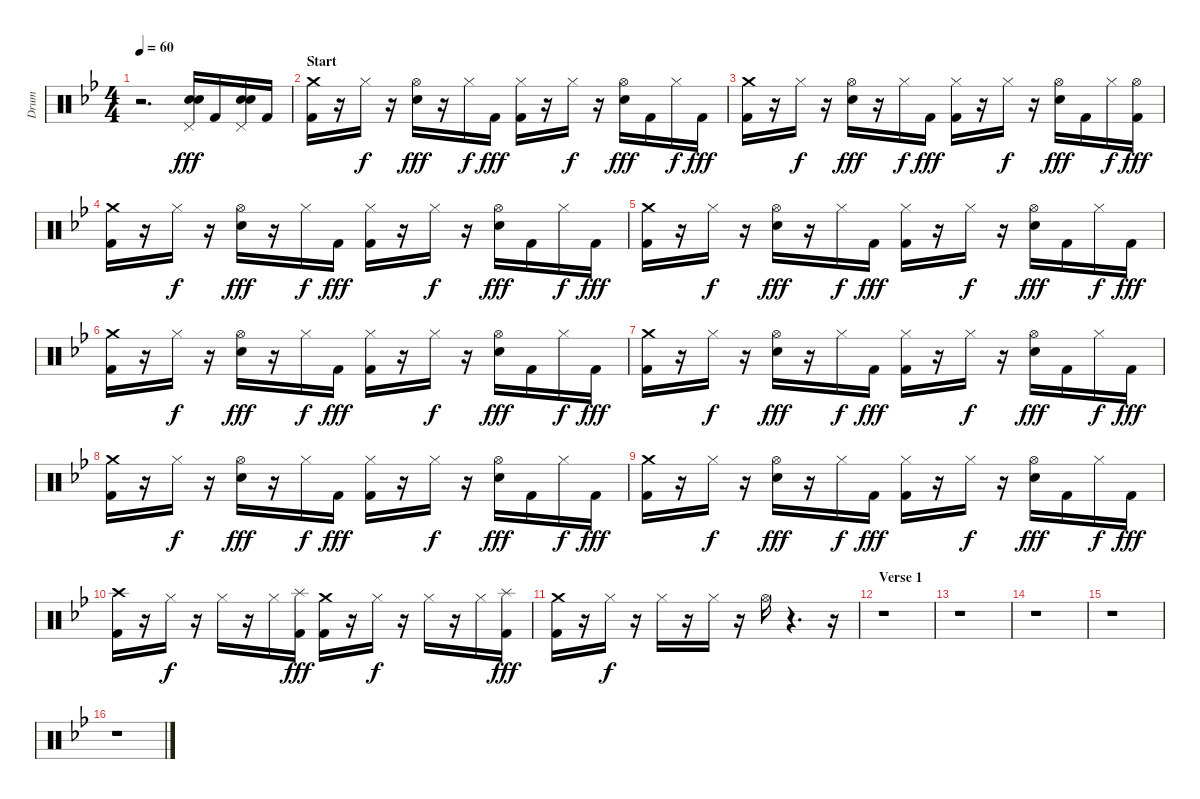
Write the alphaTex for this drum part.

\track ("Drum" "Drum") {instrument percussion}
\staff {score}
\articulation defaults
\ts (4 4)
\tempo 60
\clef neutral
\ks gminor
r.2{d dy fff} ("Electric Snare (hit)" "Electric Snare (hit)" "Pedal Hi-Hat (hit)").16 "Kick (hit) 2".16 ("Electric Snare (hit)" "Electric Snare (hit)" "Pedal Hi-Hat (hit)").16 "Kick (hit) 2".16 |
\section ("" "Start")
("Kick (hit) 2" "Crash medium (hit)").16 r.16 "Hi-Hat (closed)".16{dy f} r.16 ("Electric Snare (hit)" "Hi-Hat (open)").16{dy fff} r.16 "Hi-Hat (closed)".16{dy f} "Kick (hit) 2".16{dy fff} ("Kick (hit) 2" "Hi-Hat (closed)").16 r.16 "Hi-Hat (closed)".16{dy f} r.16 ("Electric Snare (hit)" "Hi-Hat (open)").16{dy fff} "Kick (hit) 2".16 "Hi-Hat (closed)".16{dy f} "Kick (hit) 2".16{dy fff} |
("Kick (hit) 2" "Crash medium (hit)").16 r.16 "Hi-Hat (closed)".16{dy f} r.16 ("Electric Snare (hit)" "Hi-Hat (open)").16{dy fff} r.16 "Hi-Hat (closed)".16{dy f} "Kick (hit) 2".16{dy fff} ("Kick (hit) 2" "Hi-Hat (closed)").16 r.16 "Hi-Hat (closed)".16{dy f} r.16 ("Electric Snare (hit)" "Hi-Hat (open)").16{dy fff} "Kick (hit) 2".16 "Hi-Hat (closed)".16{dy f} ("Kick (hit) 2" "Hi-Hat (open)").16{dy fff} |
("Kick (hit) 2" "Crash medium (hit)").16 r.16 "Hi-Hat (closed)".16{dy f} r.16 ("Electric Snare (hit)" "Hi-Hat (open)").16{dy fff} r.16 "Hi-Hat (closed)".16{dy f} "Kick (hit) 2".16{dy fff} ("Kick (hit) 2" "Hi-Hat (closed)").16 r.16 "Hi-Hat (closed)".16{dy f} r.16 ("Electric Snare (hit)" "Hi-Hat (open)").16{dy fff} "Kick (hit) 2".16 "Hi-Hat (closed)".16{dy f} "Kick (hit) 2".16{dy fff} |
("Kick (hit) 2" "Crash medium (hit)").16 r.16 "Hi-Hat (closed)".16{dy f} r.16 ("Electric Snare (hit)" "Hi-Hat (open)").16{dy fff} r.16 "Hi-Hat (closed)".16{dy f} "Kick (hit) 2".16{dy fff} ("Kick (hit) 2" "Hi-Hat (closed)").16 r.16 "Hi-Hat (closed)".16{dy f} r.16 ("Electric Snare (hit)" "Hi-Hat (open)").16{dy fff} "Kick (hit) 2".16 "Hi-Hat (closed)".16{dy f} "Kick (hit) 2".16{dy fff} |
("Kick (hit) 2" "Crash medium (hit)").16 r.16 "Hi-Hat (closed)".16{dy f} r.16 ("Electric Snare (hit)" "Hi-Hat (open)").16{dy fff} r.16 "Hi-Hat (closed)".16{dy f} "Kick (hit) 2".16{dy fff} ("Kick (hit) 2" "Hi-Hat (closed)").16 r.16 "Hi-Hat (closed)".16{dy f} r.16 ("Electric Snare (hit)" "Hi-Hat (open)").16{dy fff} "Kick (hit) 2".16 "Hi-Hat (closed)".16{dy f} "Kick (hit) 2".16{dy fff} |
("Kick (hit) 2" "Crash medium (hit)").16 r.16 "Hi-Hat (closed)".16{dy f} r.16 ("Electric Snare (hit)" "Hi-Hat (open)").16{dy fff} r.16 "Hi-Hat (closed)".16{dy f} "Kick (hit) 2".16{dy fff} ("Kick (hit) 2" "Hi-Hat (closed)").16 r.16 "Hi-Hat (closed)".16{dy f} r.16 ("Electric Snare (hit)" "Hi-Hat (open)").16{dy fff} "Kick (hit) 2".16 "Hi-Hat (closed)".16{dy f} "Kick (hit) 2".16{dy fff} |
("Kick (hit) 2" "Crash medium (hit)").16 r.16 "Hi-Hat (closed)".16{dy f} r.16 ("Electric Snare (hit)" "Hi-Hat (open)").16{dy fff} r.16 "Hi-Hat (closed)".16{dy f} "Kick (hit) 2".16{dy fff} ("Kick (hit) 2" "Hi-Hat (closed)").16 r.16 "Hi-Hat (closed)".16{dy f} r.16 ("Electric Snare (hit)" "Hi-Hat (open)").16{dy fff} "Kick (hit) 2".16 "Hi-Hat (closed)".16{dy f} "Kick (hit) 2".16{dy fff} |
("Kick (hit) 2" "Crash medium (hit)").16 r.16 "Hi-Hat (closed)".16{dy f} r.16 ("Electric Snare (hit)" "Hi-Hat (open)").16{dy fff} r.16 "Hi-Hat (closed)".16{dy f} "Kick (hit) 2".16{dy fff} ("Kick (hit) 2" "Hi-Hat (closed)").16 r.16 "Hi-Hat (closed)".16{dy f} r.16 ("Electric Snare (hit)" "Hi-Hat (open)").16{dy fff} "Kick (hit) 2".16 "Hi-Hat (closed)".16{dy f} "Kick (hit) 2".16{dy fff} |
("Kick (hit) 2" "Crash high (hit)").16 r.16 "Hi-Hat (closed)".16{dy f} r.16 "Hi-Hat (closed)".16 r.16 "Hi-Hat (closed)".16 ("Kick (hit) 2" "Splash (hit)").16{dy fff} ("Kick (hit) 2" "Crash medium (hit)").16 r.16 "Hi-Hat (closed)".16{dy f} r.16 "Hi-Hat (closed)".16 r.16 "Hi-Hat (closed)".16 ("Kick (hit) 2" "Splash (hit)").16{dy fff} |
("Kick (hit) 2" "Crash medium (hit)").16 r.16 "Hi-Hat (closed)".16{dy f} r.16 "Hi-Hat (closed)".16 r.16 "Hi-Hat (closed)".16 r.16 "Hi-Hat (open)".16 r.4{d} r.16 |
\section ("" "Verse 1")
r.1 |
r.1 |
r.1 |
r.1 |
r.1
